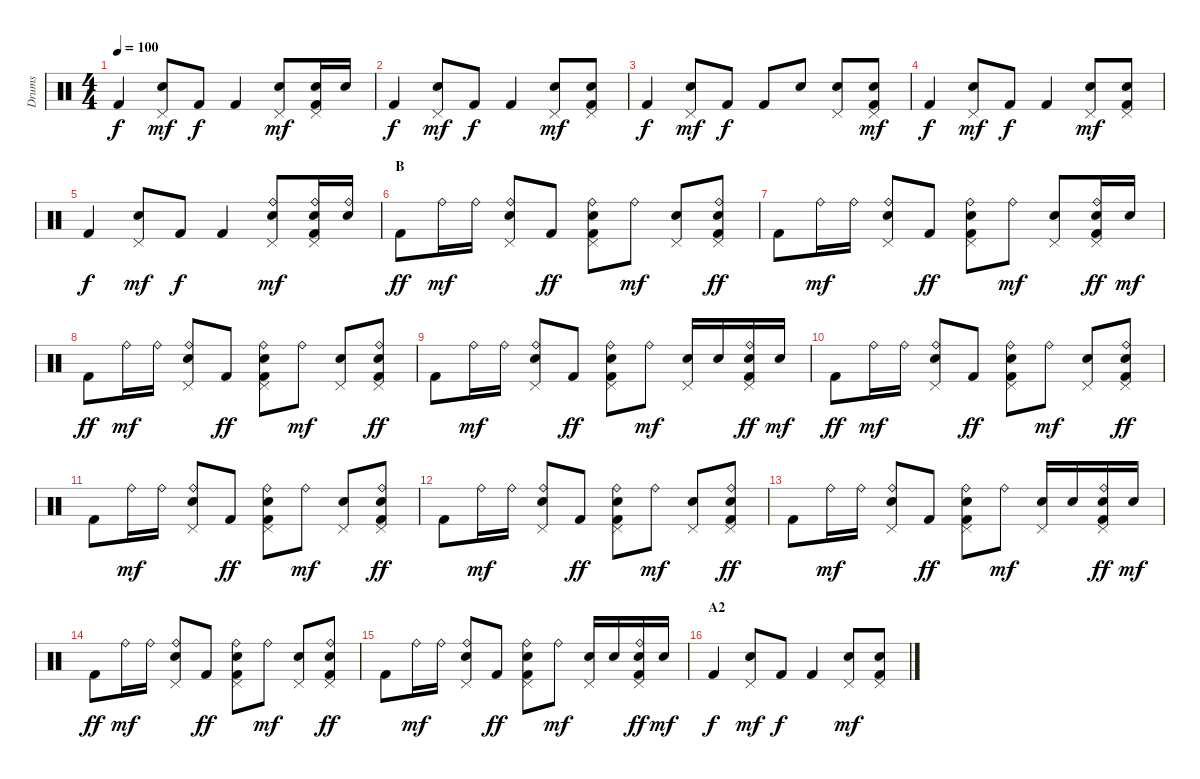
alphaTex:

\track ("Drums" "Drums") {instrument percussion}
\staff {score}
\articulation defaults
\ts (4 4)
\tempo 100
\clef neutral
\ks c "Kick (hit) 2".4{dy f}
("Pedal Hi-Hat (hit)" "Electric Snare (hit)").8{dy mf} "Kick (hit) 2".8{dy f} "Kick (hit) 2".4 ("Pedal Hi-Hat (hit)" "Electric Snare (hit)").8{dy mf} ("Pedal Hi-Hat (hit)" "Electric Snare (hit)" "Kick (hit) 2").16 "Electric Snare (hit)".16 |
"Kick (hit) 2".4{dy f} ("Pedal Hi-Hat (hit)" "Electric Snare (hit)").8{dy mf} "Kick (hit) 2".8{dy f} "Kick (hit) 2".4 ("Pedal Hi-Hat (hit)" "Electric Snare (hit)").8{dy mf} ("Pedal Hi-Hat (hit)" "Electric Snare (hit)" "Kick (hit) 2").8 |
"Kick (hit) 2".4{dy f} ("Pedal Hi-Hat (hit)" "Electric Snare (hit)").8{dy mf} "Kick (hit) 2".8{dy f} "Kick (hit) 2".8 "Electric Snare (hit)".8 ("Pedal Hi-Hat (hit)" "Electric Snare (hit)").8 ("Pedal Hi-Hat (hit)" "Electric Snare (hit)" "Kick (hit) 2").8{dy mf} |
"Kick (hit) 2".4{dy f} ("Pedal Hi-Hat (hit)" "Electric Snare (hit)").8{dy mf} "Kick (hit) 2".8{dy f} "Kick (hit) 2".4 ("Pedal Hi-Hat (hit)" "Electric Snare (hit)").8{dy mf} ("Pedal Hi-Hat (hit)" "Electric Snare (hit)" "Kick (hit) 2").8 |
"Kick (hit) 2".4{dy f} ("Pedal Hi-Hat (hit)" "Electric Snare (hit)").8{dy mf} "Kick (hit) 2".8{dy f} "Kick (hit) 2".4 ("Ride (bell)" "Pedal Hi-Hat (hit)" "Electric Snare (hit)").8{dy mf} ("Ride (bell)" "Pedal Hi-Hat (hit)" "Electric Snare (hit)" "Kick (hit) 2").16 ("Ride (bell)" "Electric Snare (hit)").16 |
\section ("" "B")
"Kick (hit) 2".8{dy ff} "Ride (bell)".16{dy mf} "Ride (bell)".16 ("Ride (bell)" "Pedal Hi-Hat (hit)" "Electric Snare (hit)").8 "Kick (hit) 2".8{dy ff} ("Ride (bell)" "Pedal Hi-Hat (hit)" "Electric Snare (hit)" "Kick (hit) 2").8 "Ride (bell)".8{dy mf} ("Pedal Hi-Hat (hit)" "Electric Snare (hit)").8 ("Ride (bell)" "Pedal Hi-Hat (hit)" "Electric Snare (hit)" "Kick (hit) 2").8{dy ff} |
"Kick (hit) 2".8 "Ride (bell)".16{dy mf} "Ride (bell)".16 ("Ride (bell)" "Pedal Hi-Hat (hit)" "Electric Snare (hit)").8 "Kick (hit) 2".8{dy ff} ("Ride (bell)" "Pedal Hi-Hat (hit)" "Electric Snare (hit)" "Kick (hit) 2").8 "Ride (bell)".8{dy mf} ("Pedal Hi-Hat (hit)" "Electric Snare (hit)").8 ("Ride (bell)" "Pedal Hi-Hat (hit)" "Electric Snare (hit)" "Kick (hit) 2").16{dy ff} "Electric Snare (hit)".16{dy mf} |
"Kick (hit) 2".8{dy ff} "Ride (bell)".16{dy mf} "Ride (bell)".16 ("Ride (bell)" "Pedal Hi-Hat (hit)" "Electric Snare (hit)").8 "Kick (hit) 2".8{dy ff} ("Ride (bell)" "Pedal Hi-Hat (hit)" "Electric Snare (hit)" "Kick (hit) 2").8 "Ride (bell)".8{dy mf} ("Pedal Hi-Hat (hit)" "Electric Snare (hit)").8 ("Ride (bell)" "Pedal Hi-Hat (hit)" "Electric Snare (hit)" "Kick (hit) 2").8{dy ff} |
"Kick (hit) 2".8 "Ride (bell)".16{dy mf} "Ride (bell)".16 ("Ride (bell)" "Pedal Hi-Hat (hit)" "Electric Snare (hit)").8 "Kick (hit) 2".8{dy ff} ("Ride (bell)" "Pedal Hi-Hat (hit)" "Electric Snare (hit)" "Kick (hit) 2").8 "Ride (bell)".8{dy mf} ("Pedal Hi-Hat (hit)" "Electric Snare (hit)").16 "Electric Snare (hit)".16 ("Ride (bell)" "Pedal Hi-Hat (hit)" "Electric Snare (hit)" "Kick (hit) 2").16{dy ff} "Electric Snare (hit)".16{dy mf} |
"Kick (hit) 2".8{dy ff} "Ride (bell)".16{dy mf} "Ride (bell)".16 ("Ride (bell)" "Pedal Hi-Hat (hit)" "Electric Snare (hit)").8 "Kick (hit) 2".8{dy ff} ("Ride (bell)" "Pedal Hi-Hat (hit)" "Electric Snare (hit)" "Kick (hit) 2").8 "Ride (bell)".8{dy mf} ("Pedal Hi-Hat (hit)" "Electric Snare (hit)").8 ("Ride (bell)" "Pedal Hi-Hat (hit)" "Electric Snare (hit)" "Kick (hit) 2").8{dy ff} |
"Kick (hit) 2".8 "Ride (bell)".16{dy mf} "Ride (bell)".16 ("Ride (bell)" "Pedal Hi-Hat (hit)" "Electric Snare (hit)").8 "Kick (hit) 2".8{dy ff} ("Ride (bell)" "Pedal Hi-Hat (hit)" "Electric Snare (hit)" "Kick (hit) 2").8 "Ride (bell)".8{dy mf} ("Pedal Hi-Hat (hit)" "Electric Snare (hit)").8 ("Ride (bell)" "Pedal Hi-Hat (hit)" "Electric Snare (hit)" "Kick (hit) 2").8{dy ff} |
"Kick (hit) 2".8 "Ride (bell)".16{dy mf} "Ride (bell)".16 ("Ride (bell)" "Pedal Hi-Hat (hit)" "Electric Snare (hit)").8 "Kick (hit) 2".8{dy ff} ("Ride (bell)" "Pedal Hi-Hat (hit)" "Electric Snare (hit)" "Kick (hit) 2").8 "Ride (bell)".8{dy mf} ("Pedal Hi-Hat (hit)" "Electric Snare (hit)").8 ("Ride (bell)" "Pedal Hi-Hat (hit)" "Electric Snare (hit)" "Kick (hit) 2").8{dy ff} |
"Kick (hit) 2".8 "Ride (bell)".16{dy mf} "Ride (bell)".16 ("Ride (bell)" "Pedal Hi-Hat (hit)" "Electric Snare (hit)").8 "Kick (hit) 2".8{dy ff} ("Ride (bell)" "Pedal Hi-Hat (hit)" "Electric Snare (hit)" "Kick (hit) 2").8 "Ride (bell)".8{dy mf} ("Pedal Hi-Hat (hit)" "Electric Snare (hit)").16 "Electric Snare (hit)".16 ("Ride (bell)" "Pedal Hi-Hat (hit)" "Electric Snare (hit)" "Kick (hit) 2").16{dy ff} "Electric Snare (hit)".16{dy mf} |
"Kick (hit) 2".8{dy ff} "Ride (bell)".16{dy mf} "Ride (bell)".16 ("Ride (bell)" "Pedal Hi-Hat (hit)" "Electric Snare (hit)").8 "Kick (hit) 2".8{dy ff} ("Ride (bell)" "Pedal Hi-Hat (hit)" "Electric Snare (hit)" "Kick (hit) 2").8 "Ride (bell)".8{dy mf} ("Pedal Hi-Hat (hit)" "Electric Snare (hit)").8 ("Ride (bell)" "Pedal Hi-Hat (hit)" "Electric Snare (hit)" "Kick (hit) 2").8{dy ff} |
"Kick (hit) 2".8 "Ride (bell)".16{dy mf} "Ride (bell)".16 ("Ride (bell)" "Pedal Hi-Hat (hit)" "Electric Snare (hit)").8 "Kick (hit) 2".8{dy ff} ("Ride (bell)" "Pedal Hi-Hat (hit)" "Electric Snare (hit)" "Kick (hit) 2").8 "Ride (bell)".8{dy mf} ("Pedal Hi-Hat (hit)" "Electric Snare (hit)").16 "Electric Snare (hit)".16 ("Ride (bell)" "Pedal Hi-Hat (hit)" "Electric Snare (hit)" "Kick (hit) 2").16{dy ff} "Electric Snare (hit)".16{dy mf} |
\section ("" "A2")
"Kick (hit) 2".4{dy f} ("Pedal Hi-Hat (hit)" "Electric Snare (hit)").8{dy mf} "Kick (hit) 2".8{dy f} "Kick (hit) 2".4 ("Pedal Hi-Hat (hit)" "Electric Snare (hit)").8{dy mf} ("Pedal Hi-Hat (hit)" "Electric Snare (hit)" "Kick (hit) 2").8
